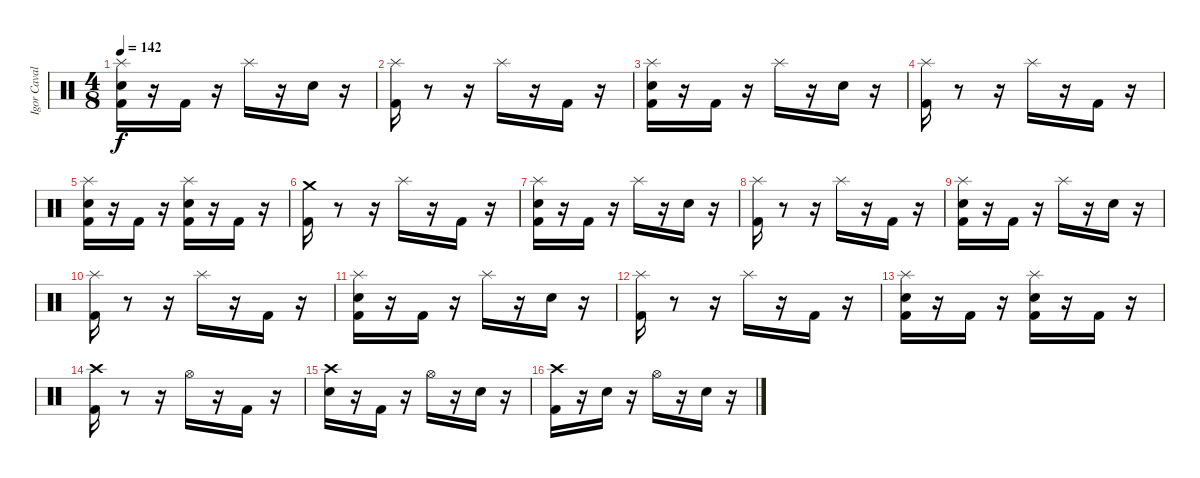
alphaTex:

\track ("Igor Cavalera" "Igor Caval") {instrument percussion}
\staff {score}
\articulation defaults
\ts (4 8)
\tempo 142
\clef neutral
\ks c
("Electric Snare (hit)" "Kick (hit) 2" "Splash (hit)").16{dy f} r.16 "Kick (hit) 2".16 r.16 "Splash (hit)".16 r.16 "Electric Snare (hit)".16 r.16 |
("Kick (hit) 2" "Splash (hit)").16 r.8 r.16 "Splash (hit)".16 r.16 "Kick (hit) 2".16 r.16 |
("Electric Snare (hit)" "Kick (hit) 2" "Splash (hit)").16 r.16 "Kick (hit) 2".16 r.16 "Splash (hit)".16 r.16 "Electric Snare (hit)".16 r.16 |
("Kick (hit) 2" "Splash (hit)").16 r.8 r.16 "Splash (hit)".16 r.16 "Kick (hit) 2".16 r.16 |
("Electric Snare (hit)" "Kick (hit) 2" "Splash (hit)").16 r.16 "Kick (hit) 2".16 r.16 ("Splash (hit)" "Electric Snare (hit)" "Kick (hit) 2").16 r.16 "Kick (hit) 2".16 r.16 |
("Kick (hit) 2" "Crash medium (hit)").16 r.8 r.16 "Splash (hit)".16 r.16 "Kick (hit) 2".16 r.16 |
("Electric Snare (hit)" "Kick (hit) 2" "Splash (hit)").16 r.16 "Kick (hit) 2".16 r.16 "Splash (hit)".16 r.16 "Electric Snare (hit)".16 r.16 |
("Kick (hit) 2" "Splash (hit)").16 r.8 r.16 "Splash (hit)".16 r.16 "Kick (hit) 2".16 r.16 |
("Electric Snare (hit)" "Kick (hit) 2" "Splash (hit)").16 r.16 "Kick (hit) 2".16 r.16 "Splash (hit)".16 r.16 "Electric Snare (hit)".16 r.16 |
("Kick (hit) 2" "Splash (hit)").16 r.8 r.16 "Splash (hit)".16 r.16 "Kick (hit) 2".16 r.16 |
("Electric Snare (hit)" "Kick (hit) 2" "Splash (hit)").16 r.16 "Kick (hit) 2".16 r.16 "Splash (hit)".16 r.16 "Electric Snare (hit)".16 r.16 |
("Kick (hit) 2" "Splash (hit)").16 r.8 r.16 "Splash (hit)".16 r.16 "Kick (hit) 2".16 r.16 |
("Electric Snare (hit)" "Kick (hit) 2" "Splash (hit)").16 r.16 "Kick (hit) 2".16 r.16 ("Splash (hit)" "Electric Snare (hit)" "Kick (hit) 2").16 r.16 "Kick (hit) 2".16 r.16 |
("Crash high (hit)" "Kick (hit) 2").16 r.8 r.16 "Hi-Hat (open)".16 r.16 "Kick (hit) 2".16 r.16 |
("Crash high (hit)" "Electric Snare (hit)").16 r.16 "Kick (hit) 2".16 r.16 "Hi-Hat (open)".16 r.16 "Electric Snare (hit)".16 r.16 |
("Kick (hit) 2" "Crash high (hit)").16 r.16 "Electric Snare (hit)".16 r.16 "Hi-Hat (open)".16 r.16 "Electric Snare (hit)".16 r.16
